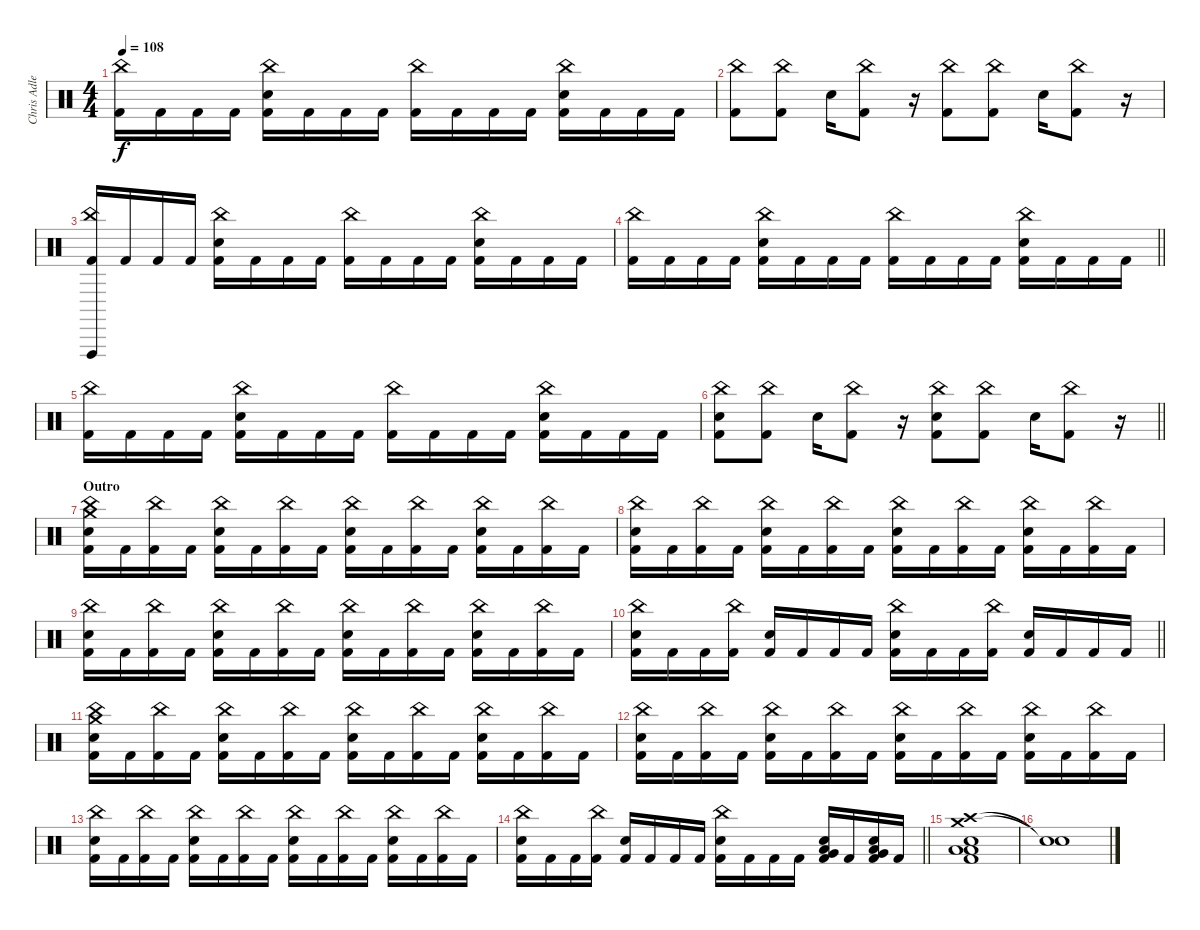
\track ("Chris Adler" "Chris Adle") {instrument percussion}
\staff {score}
\articulation defaults
\ts (4 4)
\tempo 108
\clef neutral
\ks c
("China (hit)" "Kick (hit) 2").16{dy f} "Kick (hit) 2".16 "Kick (hit) 2".16 "Kick (hit) 2".16 ("China (hit)" "Electric Snare (hit)" "Kick (hit) 2").16 "Kick (hit) 2".16 "Kick (hit) 2".16 "Kick (hit) 2".16 ("China (hit)" "Kick (hit) 2").16 "Kick (hit) 2".16 "Kick (hit) 2".16 "Kick (hit) 2".16 ("China (hit)" "Electric Snare (hit)" "Kick (hit) 2").16 "Kick (hit) 2".16 "Kick (hit) 2".16 "Kick (hit) 2".16 |
("China (hit)" "Kick (hit) 2").8 ("China (hit)" "Kick (hit) 2").8 "Electric Snare (hit)".16 ("China (hit)" "Kick (hit) 2").8 r.16 ("China (hit)" "Kick (hit) 2").8 ("China (hit)" "Kick (hit) 2").8 "Electric Snare (hit)".16 ("China (hit)" "Kick (hit) 2").8 r.16 |
("China (hit)" "Vibraslap (hit)" "Kick (hit) 2").16 "Kick (hit) 2".16 "Kick (hit) 2".16 "Kick (hit) 2".16 ("China (hit)" "Electric Snare (hit)" "Kick (hit) 2").16 "Kick (hit) 2".16 "Kick (hit) 2".16 "Kick (hit) 2".16 ("China (hit)" "Kick (hit) 2").16 "Kick (hit) 2".16 "Kick (hit) 2".16 "Kick (hit) 2".16 ("China (hit)" "Electric Snare (hit)" "Kick (hit) 2").16 "Kick (hit) 2".16 "Kick (hit) 2".16 "Kick (hit) 2".16 |
\barLineRight lightlight
("China (hit)" "Kick (hit) 2").16 "Kick (hit) 2".16 "Kick (hit) 2".16 "Kick (hit) 2".16 ("China (hit)" "Electric Snare (hit)" "Kick (hit) 2").16 "Kick (hit) 2".16 "Kick (hit) 2".16 "Kick (hit) 2".16 ("China (hit)" "Kick (hit) 2").16 "Kick (hit) 2".16 "Kick (hit) 2".16 "Kick (hit) 2".16 ("China (hit)" "Electric Snare (hit)" "Kick (hit) 2").16 "Kick (hit) 2".16 "Kick (hit) 2".16 "Kick (hit) 2".16 |
("China (hit)" "Kick (hit) 2").16 "Kick (hit) 2".16 "Kick (hit) 2".16 "Kick (hit) 2".16 ("China (hit)" "Electric Snare (hit)" "Kick (hit) 2").16 "Kick (hit) 2".16 "Kick (hit) 2".16 "Kick (hit) 2".16 ("China (hit)" "Kick (hit) 2").16 "Kick (hit) 2".16 "Kick (hit) 2".16 "Kick (hit) 2".16 ("China (hit)" "Electric Snare (hit)" "Kick (hit) 2").16 "Kick (hit) 2".16 "Kick (hit) 2".16 "Kick (hit) 2".16 |
\barLineRight lightlight
("China (hit)" "Electric Snare (hit)" "Kick (hit) 2").8 ("China (hit)" "Kick (hit) 2").8 "Electric Snare (hit)".16 ("China (hit)" "Kick (hit) 2").8 r.16 ("China (hit)" "Electric Snare (hit)" "Kick (hit) 2").8 ("China (hit)" "Kick (hit) 2").8 "Electric Snare (hit)".16 ("China (hit)" "Kick (hit) 2").8 r.16 |
\section ("" "Outro")
("China (hit)" "Crash medium (hit)" "Electric Snare (hit)" "Kick (hit) 2").16 "Kick (hit) 2".16 ("China (hit)" "Kick (hit) 2").16 "Kick (hit) 2".16 ("China (hit)" "Electric Snare (hit)" "Kick (hit) 2").16 "Kick (hit) 2".16 ("China (hit)" "Kick (hit) 2").16 "Kick (hit) 2".16 ("China (hit)" "Electric Snare (hit)" "Kick (hit) 2").16 "Kick (hit) 2".16 ("China (hit)" "Kick (hit) 2").16 "Kick (hit) 2".16 ("China (hit)" "Electric Snare (hit)" "Kick (hit) 2").16 "Kick (hit) 2".16 ("China (hit)" "Kick (hit) 2").16 "Kick (hit) 2".16 |
("China (hit)" "Electric Snare (hit)" "Kick (hit) 2").16 "Kick (hit) 2".16 ("China (hit)" "Kick (hit) 2").16 "Kick (hit) 2".16 ("China (hit)" "Electric Snare (hit)" "Kick (hit) 2").16 "Kick (hit) 2".16 ("China (hit)" "Kick (hit) 2").16 "Kick (hit) 2".16 ("China (hit)" "Electric Snare (hit)" "Kick (hit) 2").16 "Kick (hit) 2".16 ("China (hit)" "Kick (hit) 2").16 "Kick (hit) 2".16 ("China (hit)" "Electric Snare (hit)" "Kick (hit) 2").16 "Kick (hit) 2".16 ("China (hit)" "Kick (hit) 2").16 "Kick (hit) 2".16 |
("China (hit)" "Electric Snare (hit)" "Kick (hit) 2").16 "Kick (hit) 2".16 ("China (hit)" "Kick (hit) 2").16 "Kick (hit) 2".16 ("China (hit)" "Electric Snare (hit)" "Kick (hit) 2").16 "Kick (hit) 2".16 ("China (hit)" "Kick (hit) 2").16 "Kick (hit) 2".16 ("China (hit)" "Electric Snare (hit)" "Kick (hit) 2").16 "Kick (hit) 2".16 ("China (hit)" "Kick (hit) 2").16 "Kick (hit) 2".16 ("China (hit)" "Electric Snare (hit)" "Kick (hit) 2").16 "Kick (hit) 2".16 ("China (hit)" "Kick (hit) 2").16 "Kick (hit) 2".16 |
\barLineRight lightlight
("China (hit)" "Electric Snare (hit)" "Kick (hit) 2").16 "Kick (hit) 2".16 "Kick (hit) 2".16 ("China (hit)" "Kick (hit) 2").16 ("Electric Snare (hit)" "Kick (hit) 2").16 "Kick (hit) 2".16 "Kick (hit) 2".16 "Kick (hit) 2".16 ("China (hit)" "Electric Snare (hit)" "Kick (hit) 2").16 "Kick (hit) 2".16 "Kick (hit) 2".16 ("China (hit)" "Kick (hit) 2").16 ("Electric Snare (hit)" "Kick (hit) 2").16 "Kick (hit) 2".16 "Kick (hit) 2".16 "Kick (hit) 2".16 |
("China (hit)" "Crash medium (hit)" "Electric Snare (hit)" "Kick (hit) 2").16 "Kick (hit) 2".16 ("China (hit)" "Kick (hit) 2").16 "Kick (hit) 2".16 ("China (hit)" "Electric Snare (hit)" "Kick (hit) 2").16 "Kick (hit) 2".16 ("China (hit)" "Kick (hit) 2").16 "Kick (hit) 2".16 ("China (hit)" "Electric Snare (hit)" "Kick (hit) 2").16 "Kick (hit) 2".16 ("China (hit)" "Kick (hit) 2").16 "Kick (hit) 2".16 ("China (hit)" "Electric Snare (hit)" "Kick (hit) 2").16 "Kick (hit) 2".16 ("China (hit)" "Kick (hit) 2").16 "Kick (hit) 2".16 |
("China (hit)" "Electric Snare (hit)" "Kick (hit) 2").16 "Kick (hit) 2".16 ("China (hit)" "Kick (hit) 2").16 "Kick (hit) 2".16 ("China (hit)" "Electric Snare (hit)" "Kick (hit) 2").16 "Kick (hit) 2".16 ("China (hit)" "Kick (hit) 2").16 "Kick (hit) 2".16 ("China (hit)" "Electric Snare (hit)" "Kick (hit) 2").16 "Kick (hit) 2".16 ("China (hit)" "Kick (hit) 2").16 "Kick (hit) 2".16 ("China (hit)" "Electric Snare (hit)" "Kick (hit) 2").16 "Kick (hit) 2".16 ("China (hit)" "Kick (hit) 2").16 "Kick (hit) 2".16 |
("China (hit)" "Electric Snare (hit)" "Kick (hit) 2").16 "Kick (hit) 2".16 ("China (hit)" "Kick (hit) 2").16 "Kick (hit) 2".16 ("China (hit)" "Electric Snare (hit)" "Kick (hit) 2").16 "Kick (hit) 2".16 ("China (hit)" "Kick (hit) 2").16 "Kick (hit) 2".16 ("China (hit)" "Electric Snare (hit)" "Kick (hit) 2").16 "Kick (hit) 2".16 ("China (hit)" "Kick (hit) 2").16 "Kick (hit) 2".16 ("China (hit)" "Electric Snare (hit)" "Kick (hit) 2").16 "Kick (hit) 2".16 ("China (hit)" "Kick (hit) 2").16 "Kick (hit) 2".16 |
\barLineRight lightlight
("China (hit)" "Electric Snare (hit)" "Kick (hit) 2").16 "Kick (hit) 2".16 "Kick (hit) 2".16 ("China (hit)" "Kick (hit) 2").16 ("Electric Snare (hit)" "Kick (hit) 2").16 "Kick (hit) 2".16 "Kick (hit) 2".16 "Kick (hit) 2".16 ("China (hit)" "Electric Snare (hit)" "Kick (hit) 2").16 "Kick (hit) 2".16 "Kick (hit) 2".16 "Kick (hit) 2".16 ("Low Tom (hit)" "Electric Snare (hit)" "Very Low Tom (hit)" "Kick (hit) 2").16 "Kick (hit) 2".16 ("Very Low Tom (hit)" "Electric Snare (hit)" "Low Floor Tom (hit)" "Kick (hit) 2").16 "Kick (hit) 2".16 |
("Crash medium (hit)" "Crash high (hit)" "Low Floor Tom (hit)" "Electric Snare (hit)" "Low Floor Tom (hit)" "Kick (hit) 2").1 |
("Snare (hit)"{t} "Snare (hit)"{t}).1
